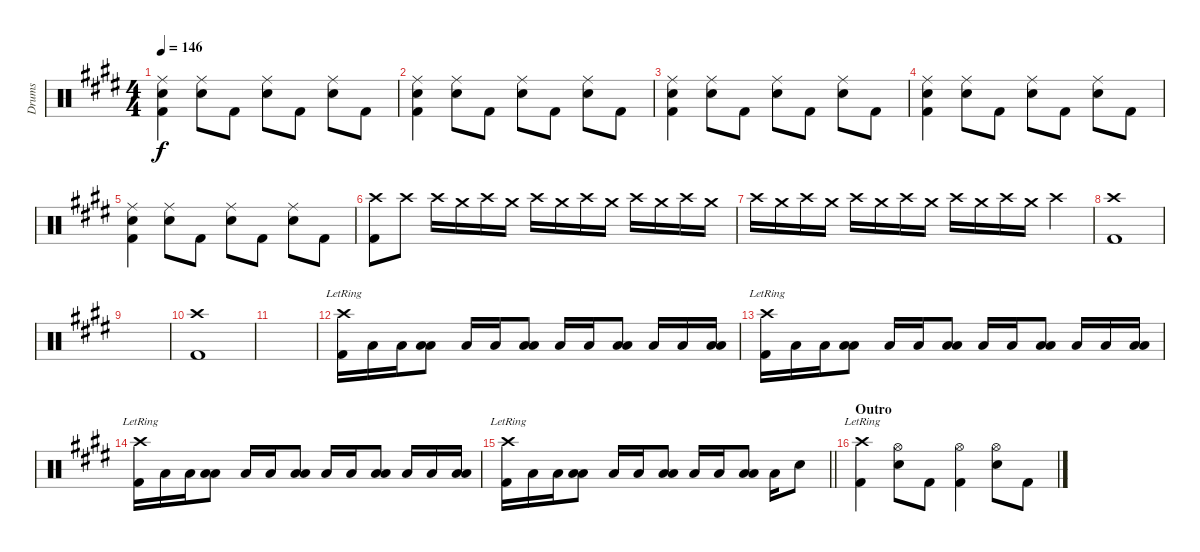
\track ("Drums" "Drums") {instrument percussion}
\staff {score}
\articulation defaults
\ts (4 4)
\tempo 146
\clef neutral
\ks e
("Kick (hit) 2" "Snare (hit) 2" "Ride (middle)").4{dy f} ("Snare (hit) 2" "Ride (middle)").8 "Kick (hit) 2".8 ("Snare (hit) 2" "Ride (middle)").8 "Kick (hit) 2".8 ("Snare (hit) 2" "Ride (middle)").8 "Kick (hit) 2".8 |
("Kick (hit) 2" "Snare (hit) 2" "Ride (middle)").4 ("Snare (hit) 2" "Ride (middle)").8 "Kick (hit) 2".8 ("Snare (hit) 2" "Ride (middle)").8 "Kick (hit) 2".8 ("Snare (hit) 2" "Ride (middle)").8 "Kick (hit) 2".8 |
("Kick (hit) 2" "Snare (hit) 2" "Ride (middle)").4 ("Snare (hit) 2" "Ride (middle)").8 "Kick (hit) 2".8 ("Snare (hit) 2" "Ride (middle)").8 "Kick (hit) 2".8 ("Snare (hit) 2" "Ride (middle)").8 "Kick (hit) 2".8 |
("Kick (hit) 2" "Snare (hit) 2" "Ride (middle)").4 ("Snare (hit) 2" "Ride (middle)").8 "Kick (hit) 2".8 ("Snare (hit) 2" "Ride (middle)").8 "Kick (hit) 2".8 ("Snare (hit) 2" "Ride (middle)").8 "Kick (hit) 2".8 |
("Kick (hit) 2" "Snare (hit) 2" "Ride (middle)").4 ("Snare (hit) 2" "Ride (middle)").8 "Kick (hit) 2".8 ("Snare (hit) 2" "Ride (middle)").8 "Kick (hit) 2".8 ("Snare (hit) 2" "Ride (middle)").8 "Kick (hit) 2".8 |
("Kick (hit) 2" "Crash high (hit)").8 "Crash high (hit)".8 "Crash high (hit)".16 "Crash medium (hit)".16 "Crash high (hit)".16 "Crash medium (hit)".16 "Crash high (hit)".16 "Crash medium (hit)".16 "Crash high (hit)".16 "Crash medium (hit)".16 "Crash high (hit)".16 "Crash medium (hit)".16 "Crash high (hit)".16 "Crash medium (hit)".16 |
"Crash high (hit)".16 "Crash medium (hit)".16 "Crash high (hit)".16 "Crash medium (hit)".16 "Crash high (hit)".16 "Crash medium (hit)".16 "Crash high (hit)".16 "Crash medium (hit)".16 "Crash high (hit)".16 "Crash medium (hit)".16 "Crash high (hit)".16 "Crash medium (hit)".16 "Crash high (hit)".4 |
("Kick (hit) 2" "Crash high (hit)").1 |
|
("Kick (hit) 2" "Crash high (hit)").1 |
|
("Kick (hit) 2" "Crash high (hit)"{lr}).16 "Low Floor Tom (hit)".16 "Low Floor Tom (hit)".16 ("Low Floor Tom (hit)" "Low Floor Tom (hit)").8 "Low Floor Tom (hit)".16 "Low Floor Tom (hit)".16 ("Low Floor Tom (hit)" "Low Floor Tom (hit)").8 "Low Floor Tom (hit)".16 "Low Floor Tom (hit)".16 ("Low Floor Tom (hit)" "Low Floor Tom (hit)").8 "Low Floor Tom (hit)".16 "Low Floor Tom (hit)".16 ("Low Floor Tom (hit)" "Low Floor Tom (hit)").16 |
("Kick (hit) 2" "Crash high (hit)"{lr}).16 "Low Floor Tom (hit)".16 "Low Floor Tom (hit)".16 ("Low Floor Tom (hit)" "Low Floor Tom (hit)").8 "Low Floor Tom (hit)".16 "Low Floor Tom (hit)".16 ("Low Floor Tom (hit)" "Low Floor Tom (hit)").8 "Low Floor Tom (hit)".16 "Low Floor Tom (hit)".16 ("Low Floor Tom (hit)" "Low Floor Tom (hit)").8 "Low Floor Tom (hit)".16 "Low Floor Tom (hit)".16 ("Low Floor Tom (hit)" "Low Floor Tom (hit)").16 |
("Kick (hit) 2" "Crash high (hit)"{lr}).16 "Low Floor Tom (hit)".16 "Low Floor Tom (hit)".16 ("Low Floor Tom (hit)" "Low Floor Tom (hit)").8 "Low Floor Tom (hit)".16 "Low Floor Tom (hit)".16 ("Low Floor Tom (hit)" "Low Floor Tom (hit)").8 "Low Floor Tom (hit)".16 "Low Floor Tom (hit)".16 ("Low Floor Tom (hit)" "Low Floor Tom (hit)").8 "Low Floor Tom (hit)".16 "Low Floor Tom (hit)".16 ("Low Floor Tom (hit)" "Low Floor Tom (hit)").16 |
\barLineRight lightlight
("Kick (hit) 2" "Crash high (hit)"{lr}).16 "Low Floor Tom (hit)".16 "Low Floor Tom (hit)".16 ("Low Floor Tom (hit)" "Low Floor Tom (hit)").8 "Low Floor Tom (hit)".16 "Low Floor Tom (hit)".16 ("Low Floor Tom (hit)" "Low Floor Tom (hit)").8 "Low Floor Tom (hit)".16 "Low Floor Tom (hit)".16 ("Low Floor Tom (hit)" "Low Floor Tom (hit)").8 "Low Floor Tom (hit)".16 "Snare (hit) 2".8 |
\section ("" "Outro")
("Kick (hit) 2" "Crash high (hit)"{lr}).4 ("Snare (hit) 2" "Hi-Hat (open)").8 "Kick (hit) 2".8 ("Kick (hit) 2" "Hi-Hat (open)").4 ("Snare (hit) 2" "Hi-Hat (open)").8 "Kick (hit) 2".8
